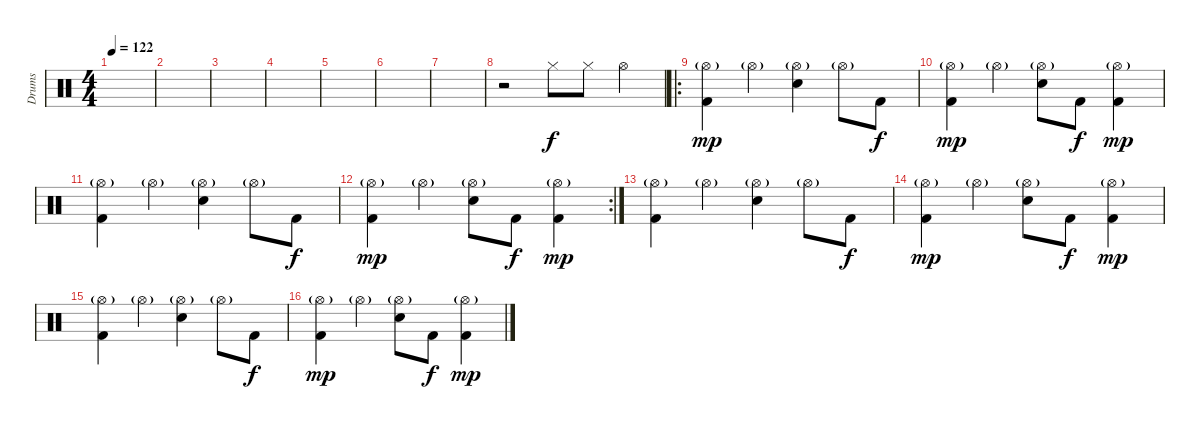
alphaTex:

\track ("Drums" "Drums") {instrument percussion}
\staff {score}
\articulation defaults
\ts (4 4)
\tempo 122
\clef neutral
\ks c
|
|
|
|
|
|
|
r.2 "Hi-Hat (closed)".8 "Hi-Hat (closed)".8 "Hi-Hat (open)".4 |
\ro
("Hi-Hat (open)"{g} "Kick (hit) 2").4{dy mp} "Hi-Hat (open)"{g}.4 ("Hi-Hat (open)"{g} "Electric Snare (hit)").4 "Hi-Hat (open)"{g}.8 "Kick (hit) 2".8{dy f} |
("Hi-Hat (open)"{g} "Kick (hit) 2").4{dy mp} "Hi-Hat (open)"{g}.4 ("Hi-Hat (open)"{g} "Electric Snare (hit)").8 "Kick (hit) 2".8{dy f} ("Hi-Hat (open)"{g} "Kick (hit) 2").4{dy mp} |
("Hi-Hat (open)"{g} "Kick (hit) 2").4 "Hi-Hat (open)"{g}.4 ("Hi-Hat (open)"{g} "Electric Snare (hit)").4 "Hi-Hat (open)"{g}.8 "Kick (hit) 2".8{dy f} |
\rc 2
("Hi-Hat (open)"{g} "Kick (hit) 2").4{dy mp} "Hi-Hat (open)"{g}.4 ("Hi-Hat (open)"{g} "Electric Snare (hit)").8 "Kick (hit) 2".8{dy f} ("Hi-Hat (open)"{g} "Kick (hit) 2").4{dy mp} |
("Hi-Hat (open)"{g} "Kick (hit) 2").4 "Hi-Hat (open)"{g}.4 ("Hi-Hat (open)"{g} "Electric Snare (hit)").4 "Hi-Hat (open)"{g}.8 "Kick (hit) 2".8{dy f} |
("Hi-Hat (open)"{g} "Kick (hit) 2").4{dy mp} "Hi-Hat (open)"{g}.4 ("Hi-Hat (open)"{g} "Electric Snare (hit)").8 "Kick (hit) 2".8{dy f} ("Hi-Hat (open)"{g} "Kick (hit) 2").4{dy mp} |
("Hi-Hat (open)"{g} "Kick (hit) 2").4 "Hi-Hat (open)"{g}.4 ("Hi-Hat (open)"{g} "Electric Snare (hit)").4 "Hi-Hat (open)"{g}.8 "Kick (hit) 2".8{dy f} |
("Hi-Hat (open)"{g} "Kick (hit) 2").4{dy mp} "Hi-Hat (open)"{g}.4 ("Hi-Hat (open)"{g} "Electric Snare (hit)").8 "Kick (hit) 2".8{dy f} ("Hi-Hat (open)"{g} "Kick (hit) 2").4{dy mp}
